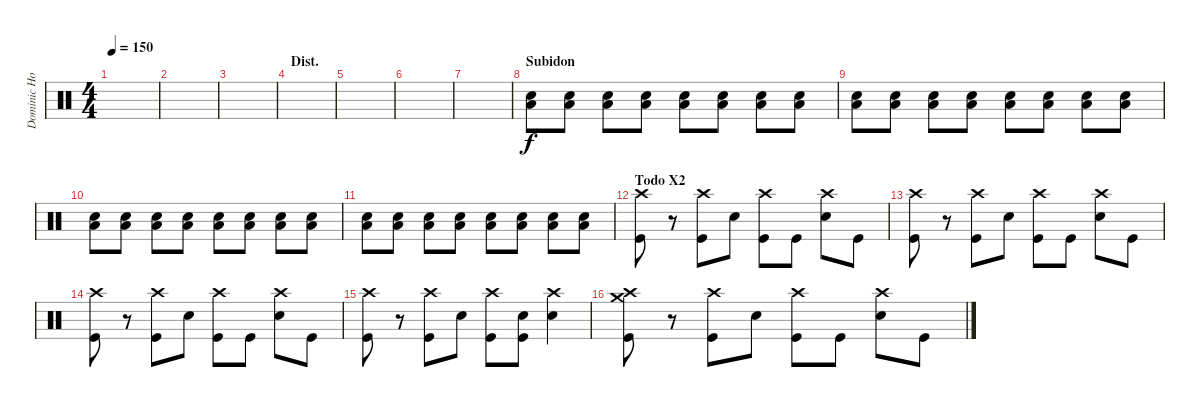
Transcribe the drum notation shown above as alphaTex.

\track ("Dominic Howard" "Dominic Ho") {instrument percussion}
\staff {score}
\articulation defaults
\ts (4 4)
\tempo 150
\clef neutral
\ks c
|
|
|
\section ("" "Dist.")
|
|
|
|
\section ("" "Subidon")
("Low Floor Tom (hit)" "Snare (hit) 2").8 ("Low Floor Tom (hit)" "Snare (hit) 2").8 ("Low Floor Tom (hit)" "Snare (hit) 2").8 ("Low Floor Tom (hit)" "Snare (hit) 2").8 ("Low Floor Tom (hit)" "Snare (hit) 2").8 ("Low Floor Tom (hit)" "Snare (hit) 2").8 ("Low Floor Tom (hit)" "Snare (hit) 2").8 ("Low Floor Tom (hit)" "Snare (hit) 2").8 |
("Low Floor Tom (hit)" "Snare (hit) 2").8 ("Low Floor Tom (hit)" "Snare (hit) 2").8 ("Low Floor Tom (hit)" "Snare (hit) 2").8 ("Low Floor Tom (hit)" "Snare (hit) 2").8 ("Low Floor Tom (hit)" "Snare (hit) 2").8 ("Low Floor Tom (hit)" "Snare (hit) 2").8 ("Low Floor Tom (hit)" "Snare (hit) 2").8 ("Low Floor Tom (hit)" "Snare (hit) 2").8 |
("Low Floor Tom (hit)" "Snare (hit) 2").8 ("Low Floor Tom (hit)" "Snare (hit) 2").8 ("Low Floor Tom (hit)" "Snare (hit) 2").8 ("Low Floor Tom (hit)" "Snare (hit) 2").8 ("Low Floor Tom (hit)" "Snare (hit) 2").8 ("Low Floor Tom (hit)" "Snare (hit) 2").8 ("Low Floor Tom (hit)" "Snare (hit) 2").8 ("Low Floor Tom (hit)" "Snare (hit) 2").8 |
("Low Floor Tom (hit)" "Snare (hit) 2").8 ("Low Floor Tom (hit)" "Snare (hit) 2").8 ("Low Floor Tom (hit)" "Snare (hit) 2").8 ("Low Floor Tom (hit)" "Snare (hit) 2").8 ("Low Floor Tom (hit)" "Snare (hit) 2").8 ("Low Floor Tom (hit)" "Snare (hit) 2").8 ("Low Floor Tom (hit)" "Snare (hit) 2").8 ("Low Floor Tom (hit)" "Snare (hit) 2").8 |
\section ("" "Todo X2")
("Crash high (hit)" "Kick (hit)").8 r.8 ("Crash high (hit)" "Kick (hit)").8 "Snare (hit) 2".8 ("Crash high (hit)" "Kick (hit)").8 "Kick (hit)".8 ("Crash high (hit)" "Snare (hit) 2").8 "Kick (hit)".8 |
("Crash high (hit)" "Kick (hit)").8 r.8 ("Crash high (hit)" "Kick (hit)").8 "Snare (hit) 2".8 ("Crash high (hit)" "Kick (hit)").8 "Kick (hit)".8 ("Crash high (hit)" "Snare (hit) 2").8 "Kick (hit)".8 |
("Crash high (hit)" "Kick (hit)").8 r.8 ("Crash high (hit)" "Kick (hit)").8 "Snare (hit) 2".8 ("Crash high (hit)" "Kick (hit)").8 "Kick (hit)".8 ("Crash high (hit)" "Snare (hit) 2").8 "Kick (hit)".8 |
("Crash high (hit)" "Kick (hit)").8 r.8 ("Crash high (hit)" "Kick (hit)").8 "Snare (hit) 2".8 ("Crash high (hit)" "Kick (hit)").8 ("Snare (hit) 2" "Kick (hit)").8 ("Crash high (hit)" "Snare (hit) 2").4 |
("Crash high (hit)" "Crash medium (hit)" "Kick (hit)").8 r.8 ("Crash high (hit)" "Kick (hit)").8 "Snare (hit) 2".8 ("Crash high (hit)" "Kick (hit)").8 "Kick (hit)".8 ("Crash high (hit)" "Snare (hit) 2").8 "Kick (hit)".8
